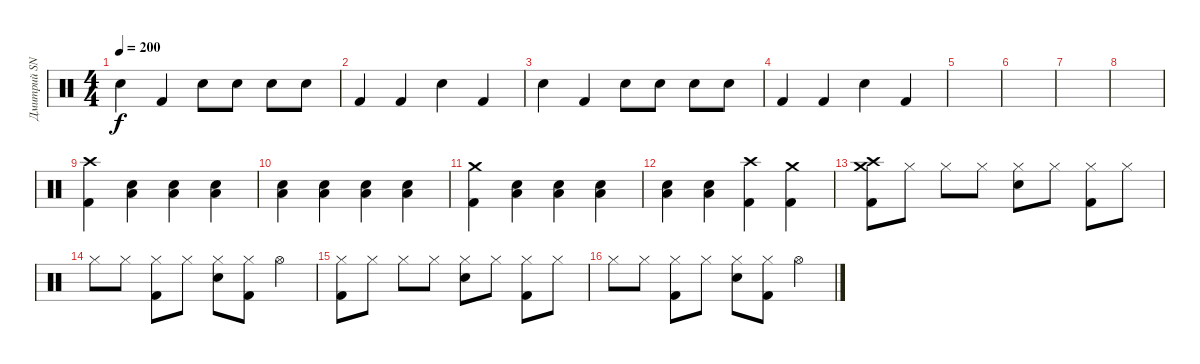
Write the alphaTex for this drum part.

\track ("Дмитрий SNAKE Хакимов" "Дмитрий SN") {instrument percussion}
\staff {score}
\articulation defaults
\ts (4 4)
\tempo 200
\clef neutral
\ks c "Electric Snare (hit)".4{dy f} "Kick (hit) 2".4 "Electric Snare (hit)".8 "Electric Snare (hit)".8 "Electric Snare (hit)".8 "Electric Snare (hit)".8
|
"Kick (hit) 2".4 "Kick (hit) 2".4 "Electric Snare (hit)".4 "Kick (hit) 2".4 |
"Electric Snare (hit)".4 "Kick (hit) 2".4 "Electric Snare (hit)".8 "Electric Snare (hit)".8 "Electric Snare (hit)".8 "Electric Snare (hit)".8 |
"Kick (hit) 2".4 "Kick (hit) 2".4 "Electric Snare (hit)".4 "Kick (hit) 2".4 |
|
|
|
|
("Crash high (hit)" "Kick (hit) 2").4 ("Snare (hit) 2" "Low Tom (hit)").4 ("Snare (hit) 2" "Low Tom (hit)").4 ("Snare (hit) 2" "Low Tom (hit)").4 |
("Snare (hit) 2" "Low Tom (hit)").4 ("Snare (hit) 2" "Low Tom (hit)").4 ("Snare (hit) 2" "Low Tom (hit)").4 ("Snare (hit) 2" "Low Tom (hit)").4 |
("Crash medium (hit)" "Kick (hit) 2").4 ("Snare (hit) 2" "Low Tom (hit)").4 ("Snare (hit) 2" "Low Tom (hit)").4 ("Snare (hit) 2" "Low Tom (hit)").4 |
("Snare (hit) 2" "Low Tom (hit)").4 ("Snare (hit) 2" "Low Tom (hit)").4 ("Crash high (hit)" "Kick (hit) 2").4 ("Crash medium (hit)" "Kick (hit) 2").4 |
("Crash high (hit)" "Crash medium (hit)" "Kick (hit) 2").8 "Hi-Hat (closed)".8 "Hi-Hat (closed)".8 "Hi-Hat (closed)".8 ("Hi-Hat (closed)" "Snare (hit) 2").8 "Hi-Hat (closed)".8 ("Hi-Hat (closed)" "Kick (hit) 2").8 "Hi-Hat (closed)".8 |
"Hi-Hat (closed)".8 "Hi-Hat (closed)".8 ("Hi-Hat (closed)" "Kick (hit) 2").8 "Hi-Hat (closed)".8 ("Hi-Hat (closed)" "Snare (hit) 2").8 ("Hi-Hat (closed)" "Kick (hit) 2").8 "Hi-Hat (open)".4 |
("Hi-Hat (closed)" "Kick (hit) 2").8 "Hi-Hat (closed)".8 "Hi-Hat (closed)".8 "Hi-Hat (closed)".8 ("Hi-Hat (closed)" "Snare (hit) 2").8 "Hi-Hat (closed)".8 ("Hi-Hat (closed)" "Kick (hit) 2").8 "Hi-Hat (closed)".8 |
"Hi-Hat (closed)".8 "Hi-Hat (closed)".8 ("Hi-Hat (closed)" "Kick (hit) 2").8 "Hi-Hat (closed)".8 ("Hi-Hat (closed)" "Snare (hit) 2").8 ("Hi-Hat (closed)" "Kick (hit) 2").8 "Hi-Hat (open)".4
